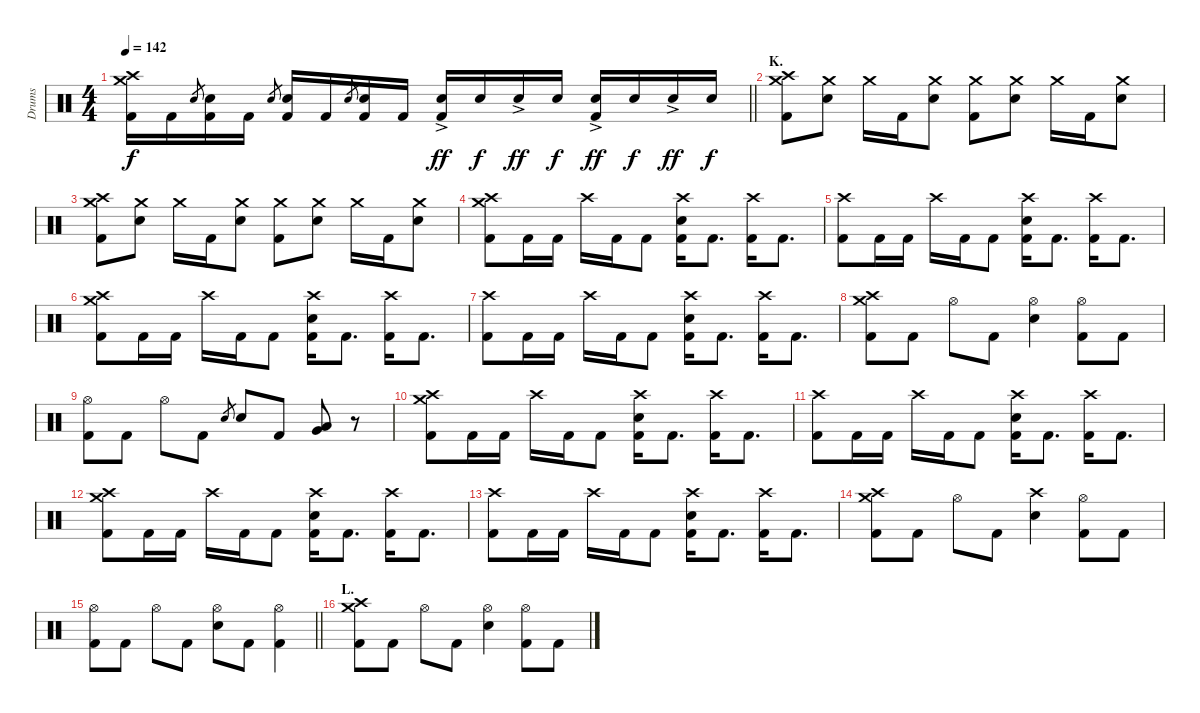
\track ("Drums" "Drums") {instrument percussion}
\staff {score}
\articulation defaults
\ts (4 4)
\tempo 142
\clef neutral
\barLineRight lightlight
\ks c
("Crash medium (hit)" "Crash high (hit)" "Kick (hit) 2").16{dy f} "Kick (hit) 2".16 "Electric Snare (hit)".8{gr} ("Electric Snare (hit)" "Kick (hit) 2").16 "Kick (hit) 2".16 "Electric Snare (hit)".8{gr} ("Electric Snare (hit)" "Kick (hit) 2").16 "Kick (hit) 2".16 "Electric Snare (hit)".8{gr} ("Electric Snare (hit)" "Kick (hit) 2").16 "Kick (hit) 2".16 ("Electric Snare (hit)"{ac} "Kick (hit) 2").16{dy ff} "Electric Snare (hit)".16{dy f} "Electric Snare (hit)"{ac}.16{dy ff} "Electric Snare (hit)".16{dy f} ("Electric Snare (hit)"{ac} "Kick (hit) 2").16{dy ff} "Electric Snare (hit)".16{dy f} "Electric Snare (hit)"{ac}.16{dy ff} "Electric Snare (hit)".16{dy f} |
\section ("" "K.")
("Crash medium (hit)" "Crash high (hit)" "Kick (hit) 2").8 ("Crash medium (hit)" "Electric Snare (hit)").8 "Crash medium (hit)".16 "Kick (hit) 2".16 ("Crash medium (hit)" "Electric Snare (hit)").8 ("Crash medium (hit)" "Kick (hit) 2").8 ("Crash medium (hit)" "Electric Snare (hit)").8 "Crash medium (hit)".16 "Kick (hit) 2".16 ("Crash medium (hit)" "Electric Snare (hit)").8 |
("Crash medium (hit)" "Crash high (hit)" "Kick (hit) 2").8 ("Crash medium (hit)" "Electric Snare (hit)").8 "Crash medium (hit)".16 "Kick (hit) 2".16 ("Crash medium (hit)" "Electric Snare (hit)").8 ("Crash medium (hit)" "Kick (hit) 2").8 ("Crash medium (hit)" "Electric Snare (hit)").8 "Crash medium (hit)".16 "Kick (hit) 2".16 ("Crash medium (hit)" "Electric Snare (hit)").8 |
("Crash medium (hit)" "Crash high (hit)" "Kick (hit) 2").8 "Kick (hit) 2".16 "Kick (hit) 2".16 "Crash high (hit)".16 "Kick (hit) 2".16 "Kick (hit) 2".8 ("Crash high (hit)" "Electric Snare (hit)" "Kick (hit) 2").16 "Kick (hit) 2".8{d} ("Crash high (hit)" "Kick (hit) 2").16 "Kick (hit) 2".8{d} |
("Crash high (hit)" "Kick (hit) 2").8 "Kick (hit) 2".16 "Kick (hit) 2".16 "Crash high (hit)".16 "Kick (hit) 2".16 "Kick (hit) 2".8 ("Crash high (hit)" "Electric Snare (hit)" "Kick (hit) 2").16 "Kick (hit) 2".8{d} ("Crash high (hit)" "Kick (hit) 2").16 "Kick (hit) 2".8{d} |
("Crash medium (hit)" "Crash high (hit)" "Kick (hit) 2").8 "Kick (hit) 2".16 "Kick (hit) 2".16 "Crash high (hit)".16 "Kick (hit) 2".16 "Kick (hit) 2".8 ("Crash high (hit)" "Electric Snare (hit)" "Kick (hit) 2").16 "Kick (hit) 2".8{d} ("Crash high (hit)" "Kick (hit) 2").16 "Kick (hit) 2".8{d} |
("Crash high (hit)" "Kick (hit) 2").8 "Kick (hit) 2".16 "Kick (hit) 2".16 "Crash high (hit)".16 "Kick (hit) 2".16 "Kick (hit) 2".8 ("Crash high (hit)" "Electric Snare (hit)" "Kick (hit) 2").16 "Kick (hit) 2".8{d} ("Crash high (hit)" "Kick (hit) 2").16 "Kick (hit) 2".8{d} |
("Crash medium (hit)" "Crash high (hit)" "Kick (hit) 2").8 "Kick (hit) 2".8 "Hi-Hat (open)".8 "Kick (hit) 2".8 ("Hi-Hat (open)" "Electric Snare (hit)").4 ("Hi-Hat (open)" "Kick (hit) 2").8 "Kick (hit) 2".8 |
("Hi-Hat (open)" "Kick (hit) 2").8 "Kick (hit) 2".8 "Hi-Hat (open)".8 "Kick (hit) 2".8 "Electric Snare (hit)".8{gr} "Electric Snare (hit)".8 "Kick (hit) 2".8 ("Very Low Tom (hit)" "Low Floor Tom (hit)").8{bu 120} r.8 |
("Crash medium (hit)" "Crash high (hit)" "Kick (hit) 2").8 "Kick (hit) 2".16 "Kick (hit) 2".16 "Crash high (hit)".16 "Kick (hit) 2".16 "Kick (hit) 2".8 ("Crash high (hit)" "Electric Snare (hit)" "Kick (hit) 2").16 "Kick (hit) 2".8{d} ("Crash high (hit)" "Kick (hit) 2").16 "Kick (hit) 2".8{d} |
("Crash high (hit)" "Kick (hit) 2").8 "Kick (hit) 2".16 "Kick (hit) 2".16 "Crash high (hit)".16 "Kick (hit) 2".16 "Kick (hit) 2".8 ("Crash high (hit)" "Electric Snare (hit)" "Kick (hit) 2").16 "Kick (hit) 2".8{d} ("Crash high (hit)" "Kick (hit) 2").16 "Kick (hit) 2".8{d} |
("Crash medium (hit)" "Crash high (hit)" "Kick (hit) 2").8 "Kick (hit) 2".16 "Kick (hit) 2".16 "Crash high (hit)".16 "Kick (hit) 2".16 "Kick (hit) 2".8 ("Crash high (hit)" "Electric Snare (hit)" "Kick (hit) 2").16 "Kick (hit) 2".8{d} ("Crash high (hit)" "Kick (hit) 2").16 "Kick (hit) 2".8{d} |
("Crash high (hit)" "Kick (hit) 2").8 "Kick (hit) 2".16 "Kick (hit) 2".16 "Crash high (hit)".16 "Kick (hit) 2".16 "Kick (hit) 2".8 ("Crash high (hit)" "Electric Snare (hit)" "Kick (hit) 2").16 "Kick (hit) 2".8{d} ("Crash high (hit)" "Kick (hit) 2").16 "Kick (hit) 2".8{d} |
("Crash medium (hit)" "Crash high (hit)" "Kick (hit) 2").8 "Kick (hit) 2".8 "Hi-Hat (open)".8 "Kick (hit) 2".8 ("Crash high (hit)" "Electric Snare (hit)").4 ("Hi-Hat (open)" "Kick (hit) 2").8 "Kick (hit) 2".8 |
\barLineRight lightlight
("Hi-Hat (open)" "Kick (hit) 2").8 "Kick (hit) 2".8 "Hi-Hat (open)".8 "Kick (hit) 2".8 ("Hi-Hat (open)" "Electric Snare (hit)").8 "Kick (hit) 2".8 ("Hi-Hat (open)" "Kick (hit) 2").4 |
\section ("" "L.")
("Crash medium (hit)" "Crash high (hit)" "Kick (hit) 2").8 "Kick (hit) 2".8 "Hi-Hat (open)".8 "Kick (hit) 2".8 ("Hi-Hat (open)" "Electric Snare (hit)").4 ("Hi-Hat (open)" "Kick (hit) 2").8 "Kick (hit) 2".8
